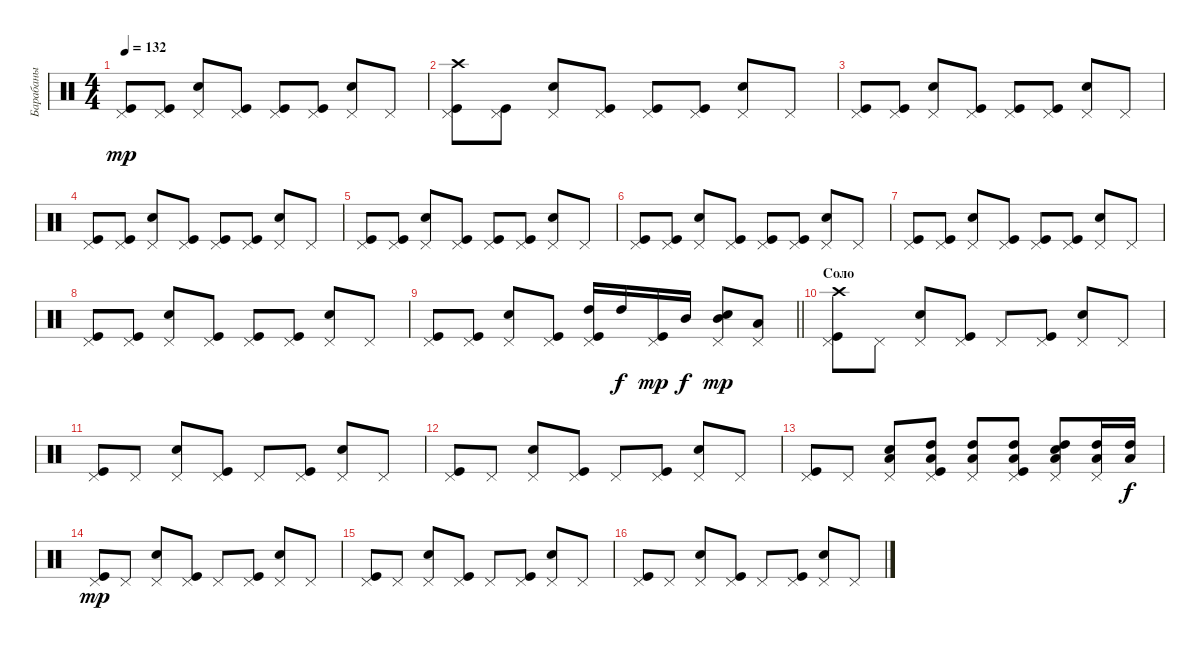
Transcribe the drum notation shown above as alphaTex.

\track ("Барабаны" "Барабаны") {instrument percussion}
\staff {score}
\articulation defaults
\ts (4 4)
\tempo 132
\clef neutral
\ks c
("Kick (hit)" "Pedal Hi-Hat (hit)").8{dy mp} ("Kick (hit)" "Pedal Hi-Hat (hit)").8 ("Snare (hit) 2" "Pedal Hi-Hat (hit)").8 ("Kick (hit)" "Pedal Hi-Hat (hit)").8 ("Kick (hit)" "Pedal Hi-Hat (hit)").8 ("Kick (hit)" "Pedal Hi-Hat (hit)").8 ("Snare (hit) 2" "Pedal Hi-Hat (hit)").8 "Pedal Hi-Hat (hit)".8 |
("Kick (hit)" "Pedal Hi-Hat (hit)" "Crash high (hit)").8 ("Kick (hit)" "Pedal Hi-Hat (hit)").8 ("Snare (hit) 2" "Pedal Hi-Hat (hit)").8 ("Kick (hit)" "Pedal Hi-Hat (hit)").8 ("Kick (hit)" "Pedal Hi-Hat (hit)").8 ("Kick (hit)" "Pedal Hi-Hat (hit)").8 ("Snare (hit) 2" "Pedal Hi-Hat (hit)").8 "Pedal Hi-Hat (hit)".8 |
("Kick (hit)" "Pedal Hi-Hat (hit)").8 ("Kick (hit)" "Pedal Hi-Hat (hit)").8 ("Snare (hit) 2" "Pedal Hi-Hat (hit)").8 ("Kick (hit)" "Pedal Hi-Hat (hit)").8 ("Kick (hit)" "Pedal Hi-Hat (hit)").8 ("Kick (hit)" "Pedal Hi-Hat (hit)").8 ("Snare (hit) 2" "Pedal Hi-Hat (hit)").8 "Pedal Hi-Hat (hit)".8 |
("Kick (hit)" "Pedal Hi-Hat (hit)").8 ("Kick (hit)" "Pedal Hi-Hat (hit)").8 ("Snare (hit) 2" "Pedal Hi-Hat (hit)").8 ("Kick (hit)" "Pedal Hi-Hat (hit)").8 ("Kick (hit)" "Pedal Hi-Hat (hit)").8 ("Kick (hit)" "Pedal Hi-Hat (hit)").8 ("Snare (hit) 2" "Pedal Hi-Hat (hit)").8 "Pedal Hi-Hat (hit)".8 |
("Kick (hit)" "Pedal Hi-Hat (hit)").8 ("Kick (hit)" "Pedal Hi-Hat (hit)").8 ("Snare (hit) 2" "Pedal Hi-Hat (hit)").8 ("Kick (hit)" "Pedal Hi-Hat (hit)").8 ("Kick (hit)" "Pedal Hi-Hat (hit)").8 ("Kick (hit)" "Pedal Hi-Hat (hit)").8 ("Snare (hit) 2" "Pedal Hi-Hat (hit)").8 "Pedal Hi-Hat (hit)".8 |
("Kick (hit)" "Pedal Hi-Hat (hit)").8 ("Kick (hit)" "Pedal Hi-Hat (hit)").8 ("Snare (hit) 2" "Pedal Hi-Hat (hit)").8 ("Kick (hit)" "Pedal Hi-Hat (hit)").8 ("Kick (hit)" "Pedal Hi-Hat (hit)").8 ("Kick (hit)" "Pedal Hi-Hat (hit)").8 ("Snare (hit) 2" "Pedal Hi-Hat (hit)").8 "Pedal Hi-Hat (hit)".8 |
("Kick (hit)" "Pedal Hi-Hat (hit)").8 ("Kick (hit)" "Pedal Hi-Hat (hit)").8 ("Snare (hit) 2" "Pedal Hi-Hat (hit)").8 ("Kick (hit)" "Pedal Hi-Hat (hit)").8 ("Kick (hit)" "Pedal Hi-Hat (hit)").8 ("Kick (hit)" "Pedal Hi-Hat (hit)").8 ("Snare (hit) 2" "Pedal Hi-Hat (hit)").8 "Pedal Hi-Hat (hit)".8 |
("Kick (hit)" "Pedal Hi-Hat (hit)").8 ("Kick (hit)" "Pedal Hi-Hat (hit)").8 ("Snare (hit) 2" "Pedal Hi-Hat (hit)").8 ("Kick (hit)" "Pedal Hi-Hat (hit)").8 ("Kick (hit)" "Pedal Hi-Hat (hit)").8 ("Kick (hit)" "Pedal Hi-Hat (hit)").8 ("Snare (hit) 2" "Pedal Hi-Hat (hit)").8 "Pedal Hi-Hat (hit)".8 |
\barLineRight lightlight
("Kick (hit)" "Pedal Hi-Hat (hit)").8 ("Kick (hit)" "Pedal Hi-Hat (hit)").8 ("Snare (hit) 2" "Pedal Hi-Hat (hit)").8 ("Kick (hit)" "Pedal Hi-Hat (hit)").8 ("Kick (hit)" "Pedal Hi-Hat (hit)" "High Tom (hit)").16 "High Tom (hit)".16{dy f} ("Kick (hit)" "Pedal Hi-Hat (hit)").16{dy mp} "Mid Tom (hit)".16{dy f} ("Snare (hit) 2" "Pedal Hi-Hat (hit)" "Mid Tom (hit)").8{dy mp} ("Pedal Hi-Hat (hit)" "Low Tom (hit)").8 |
\section ("" "Соло")
("Kick (hit)" "Pedal Hi-Hat (hit)" "Crash high (hit)").8 "Pedal Hi-Hat (hit)".8 ("Snare (hit) 2" "Pedal Hi-Hat (hit)").8 ("Kick (hit)" "Pedal Hi-Hat (hit)").8 "Pedal Hi-Hat (hit)".8 ("Kick (hit)" "Pedal Hi-Hat (hit)").8 ("Snare (hit) 2" "Pedal Hi-Hat (hit)").8 "Pedal Hi-Hat (hit)".8 |
("Kick (hit)" "Pedal Hi-Hat (hit)").8 "Pedal Hi-Hat (hit)".8 ("Snare (hit) 2" "Pedal Hi-Hat (hit)").8 ("Kick (hit)" "Pedal Hi-Hat (hit)").8 "Pedal Hi-Hat (hit)".8 ("Kick (hit)" "Pedal Hi-Hat (hit)").8 ("Snare (hit) 2" "Pedal Hi-Hat (hit)").8 "Pedal Hi-Hat (hit)".8 |
("Kick (hit)" "Pedal Hi-Hat (hit)").8 "Pedal Hi-Hat (hit)".8 ("Snare (hit) 2" "Pedal Hi-Hat (hit)").8 ("Kick (hit)" "Pedal Hi-Hat (hit)").8 "Pedal Hi-Hat (hit)".8 ("Kick (hit)" "Pedal Hi-Hat (hit)").8 ("Snare (hit) 2" "Pedal Hi-Hat (hit)").8 "Pedal Hi-Hat (hit)".8 |
("Kick (hit)" "Pedal Hi-Hat (hit)").8 "Pedal Hi-Hat (hit)".8 ("Snare (hit) 2" "Pedal Hi-Hat (hit)" "Low Tom (hit)").8 ("Kick (hit)" "Pedal Hi-Hat (hit)" "High Tom (hit)" "Low Tom (hit)").8 ("Pedal Hi-Hat (hit)" "High Tom (hit)" "Low Tom (hit)").8 ("Kick (hit)" "Pedal Hi-Hat (hit)" "High Tom (hit)" "Low Tom (hit)").8 ("Snare (hit) 2" "Pedal Hi-Hat (hit)" "High Tom (hit)" "Low Tom (hit)").8 ("Pedal Hi-Hat (hit)" "High Tom (hit)" "Low Tom (hit)").16 ("High Tom (hit)" "Low Tom (hit)").16{dy f} |
("Kick (hit)" "Pedal Hi-Hat (hit)").8{dy mp} "Pedal Hi-Hat (hit)".8 ("Snare (hit) 2" "Pedal Hi-Hat (hit)").8 ("Kick (hit)" "Pedal Hi-Hat (hit)").8 "Pedal Hi-Hat (hit)".8 ("Kick (hit)" "Pedal Hi-Hat (hit)").8 ("Snare (hit) 2" "Pedal Hi-Hat (hit)").8 "Pedal Hi-Hat (hit)".8 |
("Kick (hit)" "Pedal Hi-Hat (hit)").8 "Pedal Hi-Hat (hit)".8 ("Snare (hit) 2" "Pedal Hi-Hat (hit)").8 ("Kick (hit)" "Pedal Hi-Hat (hit)").8 "Pedal Hi-Hat (hit)".8 ("Kick (hit)" "Pedal Hi-Hat (hit)").8 ("Snare (hit) 2" "Pedal Hi-Hat (hit)").8 "Pedal Hi-Hat (hit)".8 |
("Kick (hit)" "Pedal Hi-Hat (hit)").8 "Pedal Hi-Hat (hit)".8 ("Snare (hit) 2" "Pedal Hi-Hat (hit)").8 ("Kick (hit)" "Pedal Hi-Hat (hit)").8 "Pedal Hi-Hat (hit)".8 ("Kick (hit)" "Pedal Hi-Hat (hit)").8 ("Snare (hit) 2" "Pedal Hi-Hat (hit)").8 "Pedal Hi-Hat (hit)".8
